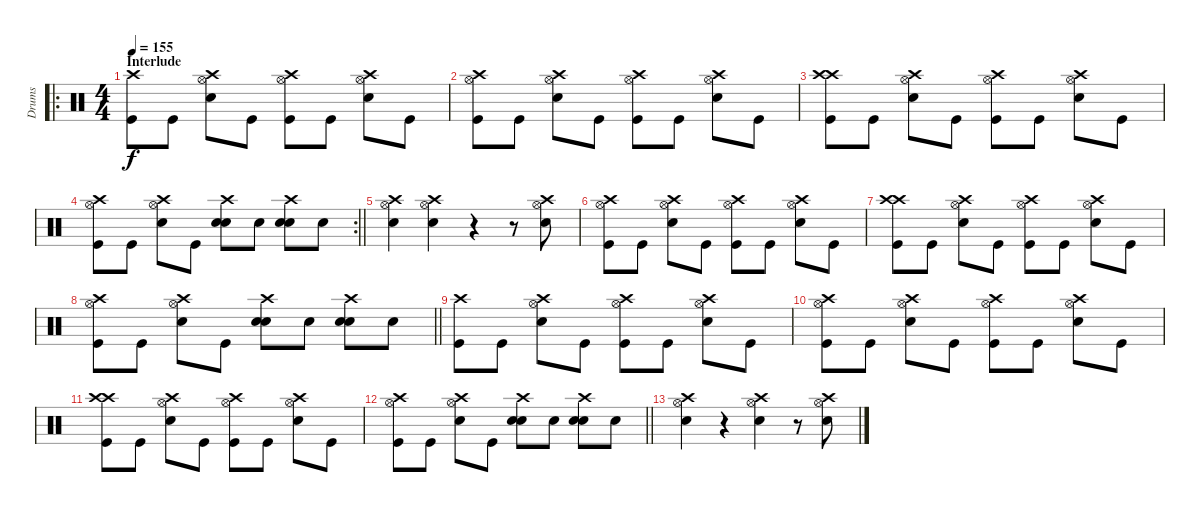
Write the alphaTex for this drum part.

\track ("Drums" "Drums") {instrument percussion}
\staff {score}
\articulation defaults
\ro
\ts (4 4)
\section ("" "Interlude")
\tempo 155
\clef neutral
\ks c
("Crash high (hit)" "Kick (hit)").8{dy f} "Kick (hit)".8 ("Electric Snare (hit)" "Hi-Hat (open)" "Crash high (hit)").8 "Kick (hit)".8 ("Kick (hit)" "Hi-Hat (open)" "Crash high (hit)").8 "Kick (hit)".8 ("Electric Snare (hit)" "Hi-Hat (open)" "Crash high (hit)").8 "Kick (hit)".8 |
("Kick (hit)" "Hi-Hat (open)" "Crash high (hit)").8 "Kick (hit)".8 ("Electric Snare (hit)" "Hi-Hat (open)" "Crash high (hit)").8 "Kick (hit)".8 ("Kick (hit)" "Hi-Hat (open)" "Crash high (hit)").8 "Kick (hit)".8 ("Electric Snare (hit)" "Hi-Hat (open)" "Crash high (hit)").8 "Kick (hit)".8 |
("Crash high (hit)" "Kick (hit)" "Crash high (hit)").8 "Kick (hit)".8 ("Electric Snare (hit)" "Hi-Hat (open)" "Crash high (hit)").8 "Kick (hit)".8 ("Kick (hit)" "Hi-Hat (open)" "Crash high (hit)").8 "Kick (hit)".8 ("Electric Snare (hit)" "Hi-Hat (open)" "Crash high (hit)").8 "Kick (hit)".8 |
\rc 2
\barLineRight lightlight
("Kick (hit)" "Hi-Hat (open)" "Crash high (hit)").8 "Kick (hit)".8 ("Electric Snare (hit)" "Hi-Hat (open)" "Crash high (hit)").8 "Kick (hit)".8 ("Electric Snare (hit)" "Electric Snare (hit)" "Crash high (hit)").8 "Electric Snare (hit)".8 ("Electric Snare (hit)" "Electric Snare (hit)" "Crash high (hit)").8 "Electric Snare (hit)".8 |
\section ("" "")
("Electric Snare (hit)" "Hi-Hat (open)" "Crash high (hit)").4 ("Electric Snare (hit)" "Hi-Hat (open)" "Crash high (hit)").4 r.4 r.8 ("Electric Snare (hit)" "Hi-Hat (open)" "Crash high (hit)").8 |
("Kick (hit)" "Hi-Hat (open)" "Crash high (hit)").8 "Kick (hit)".8 ("Electric Snare (hit)" "Hi-Hat (open)" "Crash high (hit)").8 "Kick (hit)".8 ("Kick (hit)" "Hi-Hat (open)" "Crash high (hit)").8 "Kick (hit)".8 ("Electric Snare (hit)" "Hi-Hat (open)" "Crash high (hit)").8 "Kick (hit)".8 |
("Crash high (hit)" "Kick (hit)" "Crash high (hit)").8 "Kick (hit)".8 ("Electric Snare (hit)" "Hi-Hat (open)" "Crash high (hit)").8 "Kick (hit)".8 ("Kick (hit)" "Hi-Hat (open)" "Crash high (hit)").8 "Kick (hit)".8 ("Electric Snare (hit)" "Hi-Hat (open)" "Crash high (hit)").8 "Kick (hit)".8 |
\barLineRight lightlight
("Kick (hit)" "Hi-Hat (open)" "Crash high (hit)").8 "Kick (hit)".8 ("Electric Snare (hit)" "Hi-Hat (open)" "Crash high (hit)").8 "Kick (hit)".8 ("Electric Snare (hit)" "Electric Snare (hit)" "Crash high (hit)").8 "Electric Snare (hit)".8 ("Electric Snare (hit)" "Electric Snare (hit)" "Crash high (hit)").8 "Electric Snare (hit)".8 |
("Crash high (hit)" "Kick (hit)").8 "Kick (hit)".8 ("Electric Snare (hit)" "Hi-Hat (open)" "Crash high (hit)").8 "Kick (hit)".8 ("Kick (hit)" "Hi-Hat (open)" "Crash high (hit)").8 "Kick (hit)".8 ("Electric Snare (hit)" "Hi-Hat (open)" "Crash high (hit)").8 "Kick (hit)".8 |
("Kick (hit)" "Hi-Hat (open)" "Crash high (hit)").8 "Kick (hit)".8 ("Electric Snare (hit)" "Hi-Hat (open)" "Crash high (hit)").8 "Kick (hit)".8 ("Kick (hit)" "Hi-Hat (open)" "Crash high (hit)").8 "Kick (hit)".8 ("Electric Snare (hit)" "Hi-Hat (open)" "Crash high (hit)").8 "Kick (hit)".8 |
("Crash high (hit)" "Kick (hit)" "Crash high (hit)").8 "Kick (hit)".8 ("Electric Snare (hit)" "Hi-Hat (open)" "Crash high (hit)").8 "Kick (hit)".8 ("Kick (hit)" "Hi-Hat (open)" "Crash high (hit)").8 "Kick (hit)".8 ("Electric Snare (hit)" "Hi-Hat (open)" "Crash high (hit)").8 "Kick (hit)".8 |
\barLineRight lightlight
("Kick (hit)" "Hi-Hat (open)" "Crash high (hit)").8 "Kick (hit)".8 ("Electric Snare (hit)" "Hi-Hat (open)" "Crash high (hit)").8 "Kick (hit)".8 ("Electric Snare (hit)" "Electric Snare (hit)" "Crash high (hit)").8 "Electric Snare (hit)".8 ("Electric Snare (hit)" "Electric Snare (hit)" "Crash high (hit)").8 "Electric Snare (hit)".8 |
("Electric Snare (hit)" "Hi-Hat (open)" "Crash high (hit)").4 r.4 ("Electric Snare (hit)" "Hi-Hat (open)" "Crash high (hit)").4 r.8 ("Electric Snare (hit)" "Hi-Hat (open)" "Crash high (hit)").8
